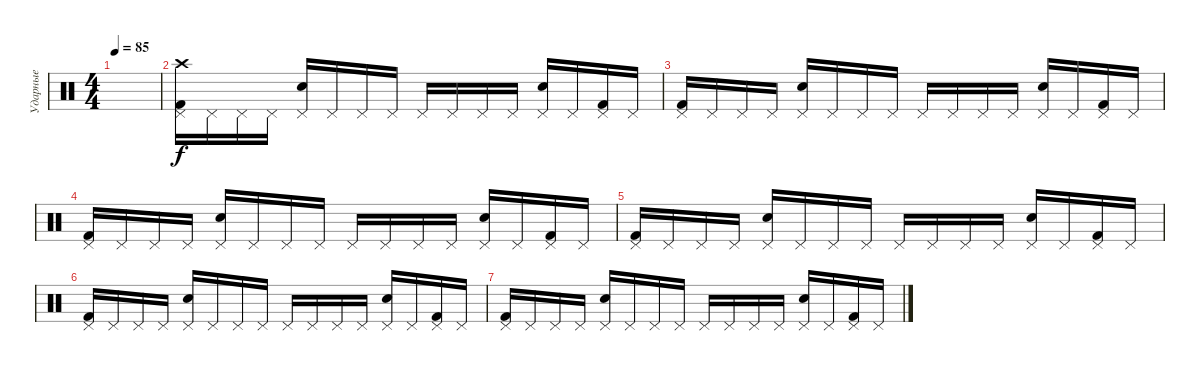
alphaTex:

\track ("Ударные" "Ударные") {instrument percussion}
\staff {score}
\articulation defaults
\ts (4 4)
\tempo 85
\clef neutral
\ks c
|
("Pedal Hi-Hat (hit)" "Kick (hit) 2" "Crash high (hit)").16 "Pedal Hi-Hat (hit)".16 "Pedal Hi-Hat (hit)".16 "Pedal Hi-Hat (hit)".16 ("Pedal Hi-Hat (hit)" "Electric Snare (hit)").16 "Pedal Hi-Hat (hit)".16 "Pedal Hi-Hat (hit)".16 "Pedal Hi-Hat (hit)".16 "Pedal Hi-Hat (hit)".16 "Pedal Hi-Hat (hit)".16 "Pedal Hi-Hat (hit)".16 "Pedal Hi-Hat (hit)".16 ("Pedal Hi-Hat (hit)" "Electric Snare (hit)").16 "Pedal Hi-Hat (hit)".16 ("Pedal Hi-Hat (hit)" "Kick (hit) 2").16 "Pedal Hi-Hat (hit)".16 |
("Pedal Hi-Hat (hit)" "Kick (hit) 2").16 "Pedal Hi-Hat (hit)".16 "Pedal Hi-Hat (hit)".16 "Pedal Hi-Hat (hit)".16 ("Pedal Hi-Hat (hit)" "Electric Snare (hit)").16 "Pedal Hi-Hat (hit)".16 "Pedal Hi-Hat (hit)".16 "Pedal Hi-Hat (hit)".16 "Pedal Hi-Hat (hit)".16 "Pedal Hi-Hat (hit)".16 "Pedal Hi-Hat (hit)".16 "Pedal Hi-Hat (hit)".16 ("Pedal Hi-Hat (hit)" "Electric Snare (hit)").16 "Pedal Hi-Hat (hit)".16 ("Pedal Hi-Hat (hit)" "Kick (hit) 2").16 "Pedal Hi-Hat (hit)".16 |
("Pedal Hi-Hat (hit)" "Kick (hit) 2").16 "Pedal Hi-Hat (hit)".16 "Pedal Hi-Hat (hit)".16 "Pedal Hi-Hat (hit)".16 ("Pedal Hi-Hat (hit)" "Electric Snare (hit)").16 "Pedal Hi-Hat (hit)".16 "Pedal Hi-Hat (hit)".16 "Pedal Hi-Hat (hit)".16 "Pedal Hi-Hat (hit)".16 "Pedal Hi-Hat (hit)".16 "Pedal Hi-Hat (hit)".16 "Pedal Hi-Hat (hit)".16 ("Pedal Hi-Hat (hit)" "Electric Snare (hit)").16 "Pedal Hi-Hat (hit)".16 ("Pedal Hi-Hat (hit)" "Kick (hit) 2").16 "Pedal Hi-Hat (hit)".16 |
("Pedal Hi-Hat (hit)" "Kick (hit) 2").16 "Pedal Hi-Hat (hit)".16 "Pedal Hi-Hat (hit)".16 "Pedal Hi-Hat (hit)".16 ("Pedal Hi-Hat (hit)" "Electric Snare (hit)").16 "Pedal Hi-Hat (hit)".16 "Pedal Hi-Hat (hit)".16 "Pedal Hi-Hat (hit)".16 "Pedal Hi-Hat (hit)".16 "Pedal Hi-Hat (hit)".16 "Pedal Hi-Hat (hit)".16 "Pedal Hi-Hat (hit)".16 ("Pedal Hi-Hat (hit)" "Electric Snare (hit)").16 "Pedal Hi-Hat (hit)".16 ("Pedal Hi-Hat (hit)" "Kick (hit) 2").16 "Pedal Hi-Hat (hit)".16 |
("Pedal Hi-Hat (hit)" "Kick (hit) 2").16 "Pedal Hi-Hat (hit)".16 "Pedal Hi-Hat (hit)".16 "Pedal Hi-Hat (hit)".16 ("Pedal Hi-Hat (hit)" "Electric Snare (hit)").16 "Pedal Hi-Hat (hit)".16 "Pedal Hi-Hat (hit)".16 "Pedal Hi-Hat (hit)".16 "Pedal Hi-Hat (hit)".16 "Pedal Hi-Hat (hit)".16 "Pedal Hi-Hat (hit)".16 "Pedal Hi-Hat (hit)".16 ("Pedal Hi-Hat (hit)" "Electric Snare (hit)").16 "Pedal Hi-Hat (hit)".16 ("Pedal Hi-Hat (hit)" "Kick (hit) 2").16 "Pedal Hi-Hat (hit)".16 |
("Pedal Hi-Hat (hit)" "Kick (hit) 2").16 "Pedal Hi-Hat (hit)".16 "Pedal Hi-Hat (hit)".16 "Pedal Hi-Hat (hit)".16 ("Pedal Hi-Hat (hit)" "Electric Snare (hit)").16 "Pedal Hi-Hat (hit)".16 "Pedal Hi-Hat (hit)".16 "Pedal Hi-Hat (hit)".16 "Pedal Hi-Hat (hit)".16 "Pedal Hi-Hat (hit)".16 "Pedal Hi-Hat (hit)".16 "Pedal Hi-Hat (hit)".16 ("Pedal Hi-Hat (hit)" "Electric Snare (hit)").16 "Pedal Hi-Hat (hit)".16 ("Pedal Hi-Hat (hit)" "Kick (hit) 2").16 "Pedal Hi-Hat (hit)".16
